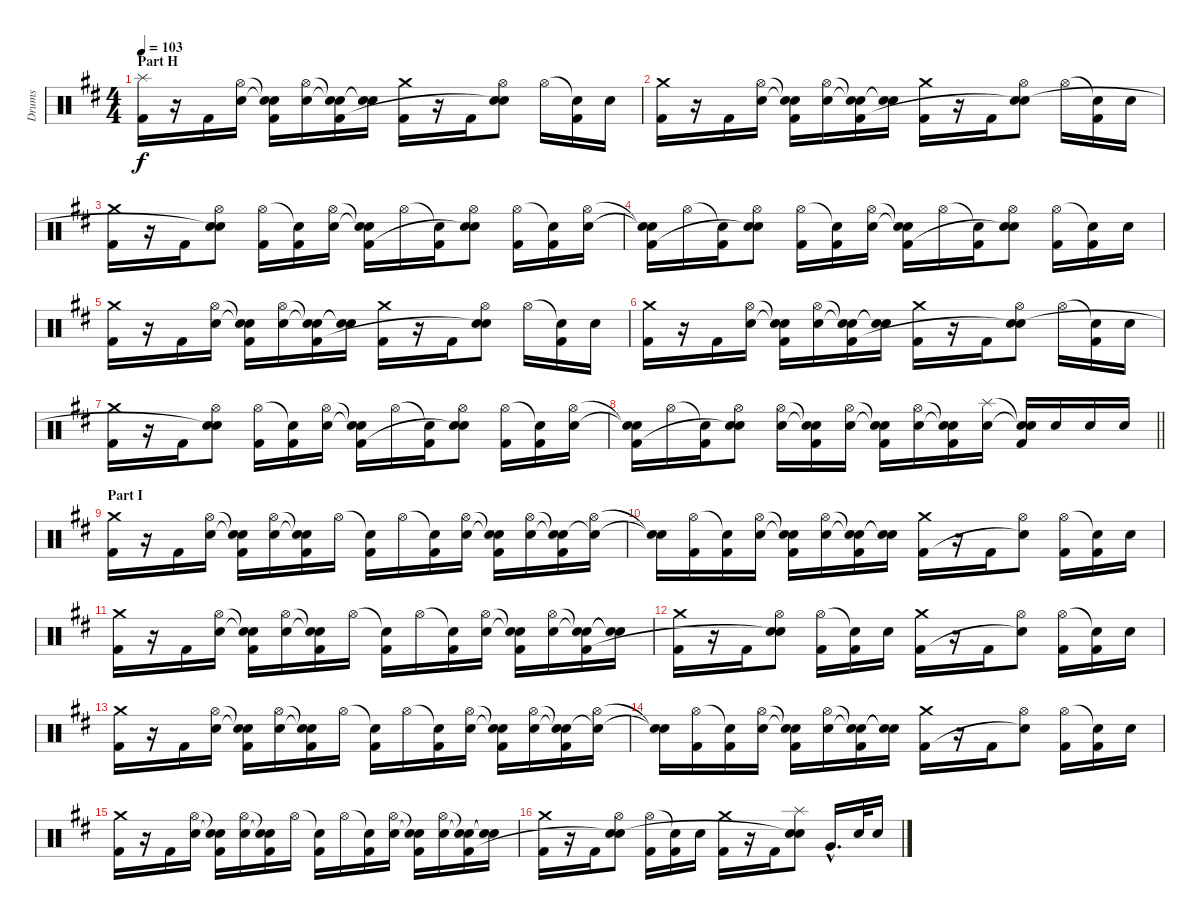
\track ("Drums" "Drums") {instrument percussion}
\staff {score}
\articulation defaults
\ts (4 4)
\section ("" "Part H")
\tempo 103
\clef neutral
\ks d
("Splash (hit)" "Kick (hit) 2").16{dy f} r.16 "Kick (hit) 2".16 ("Hi-Hat (open)" "Electric Snare (hit)").16 ("Snare (hit)"{t} "Snare (hit)"{t} "Kick (hit) 2").16 ("Hi-Hat (open)" "Electric Snare (hit)").16 ("Snare (hit)"{t} "Snare (hit)"{t} "Kick (hit) 2").16 ("Snare (hit)"{t} "Snare (hit)"{t}).16 ("Crash medium (hit)" "Kick (hit) 2").16 r.16 "Kick (hit) 2".16 ("Hi-Hat (open)" "Electric Snare (hit)" "Snare (hit)"{t}).8 "Hi-Hat (open)".16 ("Snare (hit)"{t} "Kick (hit) 2").16 "Electric Snare (hit)".16 |
("Crash medium (hit)" "Kick (hit) 2").16 r.16 "Kick (hit) 2".16 ("Hi-Hat (open)" "Electric Snare (hit)").16 ("Snare (hit)"{t} "Snare (hit)"{t} "Kick (hit) 2").16 ("Hi-Hat (open)" "Electric Snare (hit)").16 ("Snare (hit)"{t} "Snare (hit)"{t} "Kick (hit) 2").16 ("Snare (hit)"{t} "Snare (hit)"{t}).16 ("Crash medium (hit)" "Kick (hit) 2").16 r.16 "Kick (hit) 2".16 ("Hi-Hat (open)" "Electric Snare (hit)" "Snare (hit)"{t}).8 "Hi-Hat (open)".16 ("Snare (hit)"{t} "Kick (hit) 2").16 "Electric Snare (hit)".16 |
("Crash medium (hit)" "Kick (hit) 2").16 r.16 "Kick (hit) 2".16 ("Hi-Hat (open)" "Electric Snare (hit)" "Snare (hit)"{t}).8 ("Hi-Hat (open)" "Kick (hit) 2").16 ("Snare (hit)"{t} "Kick (hit) 2").16 ("Hi-Hat (open)" "Electric Snare (hit)").16 ("Snare (hit)"{t} "Snare (hit)"{t} "Kick (hit) 2").16 "Hi-Hat (open)".16 ("Snare (hit)"{t} "Kick (hit) 2").16 ("Hi-Hat (open)" "Electric Snare (hit)" "Snare (hit)"{t}).8 ("Hi-Hat (open)" "Kick (hit) 2").16 ("Snare (hit)"{t} "Kick (hit) 2").16 ("Hi-Hat (open)" "Electric Snare (hit)").16 |
("Snare (hit)"{t} "Snare (hit)"{t} "Kick (hit) 2").16 "Hi-Hat (open)".16 ("Snare (hit)"{t} "Kick (hit) 2").16 ("Hi-Hat (open)" "Electric Snare (hit)" "Snare (hit)"{t}).8 ("Hi-Hat (open)" "Kick (hit) 2").16 ("Snare (hit)"{t} "Kick (hit) 2").16 ("Hi-Hat (open)" "Electric Snare (hit)").16 ("Snare (hit)"{t} "Snare (hit)"{t} "Kick (hit) 2").16 "Hi-Hat (open)".16 ("Snare (hit)"{t} "Kick (hit) 2").16 ("Hi-Hat (open)" "Electric Snare (hit)" "Snare (hit)"{t}).8 ("Hi-Hat (open)" "Kick (hit) 2").16 ("Snare (hit)"{t} "Kick (hit) 2").16 "Electric Snare (hit)".16 |
("Crash medium (hit)" "Kick (hit) 2").16 r.16 "Kick (hit) 2".16 ("Hi-Hat (open)" "Electric Snare (hit)").16 ("Snare (hit)"{t} "Snare (hit)"{t} "Kick (hit) 2").16 ("Hi-Hat (open)" "Electric Snare (hit)").16 ("Snare (hit)"{t} "Snare (hit)"{t} "Kick (hit) 2").16 ("Snare (hit)"{t} "Snare (hit)"{t}).16 ("Crash medium (hit)" "Kick (hit) 2").16 r.16 "Kick (hit) 2".16 ("Hi-Hat (open)" "Electric Snare (hit)" "Snare (hit)"{t}).8 "Hi-Hat (open)".16 ("Snare (hit)"{t} "Kick (hit) 2").16 "Electric Snare (hit)".16 |
("Crash medium (hit)" "Kick (hit) 2").16 r.16 "Kick (hit) 2".16 ("Hi-Hat (open)" "Electric Snare (hit)").16 ("Snare (hit)"{t} "Snare (hit)"{t} "Kick (hit) 2").16 ("Hi-Hat (open)" "Electric Snare (hit)").16 ("Snare (hit)"{t} "Snare (hit)"{t} "Kick (hit) 2").16 ("Snare (hit)"{t} "Snare (hit)"{t}).16 ("Crash medium (hit)" "Kick (hit) 2").16 r.16 "Kick (hit) 2".16 ("Hi-Hat (open)" "Electric Snare (hit)" "Snare (hit)"{t}).8 "Hi-Hat (open)".16 ("Snare (hit)"{t} "Kick (hit) 2").16 "Electric Snare (hit)".16 |
("Crash medium (hit)" "Kick (hit) 2").16 r.16 "Kick (hit) 2".16 ("Hi-Hat (open)" "Electric Snare (hit)" "Snare (hit)"{t}).8 ("Hi-Hat (open)" "Kick (hit) 2").16 ("Snare (hit)"{t} "Kick (hit) 2").16 ("Hi-Hat (open)" "Electric Snare (hit)").16 ("Snare (hit)"{t} "Snare (hit)"{t} "Kick (hit) 2").16 "Hi-Hat (open)".16 ("Snare (hit)"{t} "Kick (hit) 2").16 ("Hi-Hat (open)" "Electric Snare (hit)" "Snare (hit)"{t}).8 ("Hi-Hat (open)" "Kick (hit) 2").16 ("Snare (hit)"{t} "Kick (hit) 2").16 ("Hi-Hat (open)" "Electric Snare (hit)").16 |
\barLineRight lightlight
("Snare (hit)"{t} "Snare (hit)"{t} "Kick (hit) 2").16 "Hi-Hat (open)".16 ("Snare (hit)"{t} "Kick (hit) 2").16 ("Hi-Hat (open)" "Electric Snare (hit)" "Snare (hit)"{t}).8 ("Hi-Hat (open)" "Electric Snare (hit)").16 ("Snare (hit)"{t} "Snare (hit)"{t} "Kick (hit) 2").16 ("Hi-Hat (open)" "Electric Snare (hit)").16 ("Snare (hit)"{t} "Snare (hit)"{t} "Kick (hit) 2").16 ("Hi-Hat (open)" "Electric Snare (hit)").16 ("Snare (hit)"{t} "Snare (hit)"{t} "Kick (hit) 2").16 ("Splash (hit)" "Electric Snare (hit)").16 ("Snare (hit)"{t} "Snare (hit)"{t} "Kick (hit) 2").16 "Electric Snare (hit)".16 "Electric Snare (hit)".16 "Electric Snare (hit)".16 |
\section ("" "Part I")
("Crash medium (hit)" "Kick (hit) 2").16 r.16 "Kick (hit) 2".16 ("Hi-Hat (open)" "Electric Snare (hit)").16 ("Snare (hit)"{t} "Snare (hit)"{t} "Kick (hit) 2").16 ("Hi-Hat (open)" "Electric Snare (hit)").16 ("Snare (hit)"{t} "Snare (hit)"{t} "Kick (hit) 2").16 "Hi-Hat (open)".16 ("Snare (hit)"{t} "Kick (hit) 2").16 "Hi-Hat (open)".16 ("Snare (hit)"{t} "Kick (hit) 2").16 ("Hi-Hat (open)" "Electric Snare (hit)").16 ("Snare (hit)"{t} "Snare (hit)"{t} "Kick (hit) 2").16 ("Hi-Hat (open)" "Electric Snare (hit)").16 ("Snare (hit)"{t} "Snare (hit)"{t} "Kick (hit) 2").16 ("Hi-Hat (open)" "Snare (hit)"{t}).16 |
("Snare (hit)"{t} "Snare (hit)"{t}).16 ("Hi-Hat (open)" "Kick (hit) 2").16 ("Snare (hit)"{t} "Kick (hit) 2").16 ("Hi-Hat (open)" "Electric Snare (hit)").16 ("Snare (hit)"{t} "Snare (hit)"{t} "Kick (hit) 2").16 ("Hi-Hat (open)" "Electric Snare (hit)").16 ("Snare (hit)"{t} "Snare (hit)"{t} "Kick (hit) 2").16 ("Snare (hit)"{t} "Snare (hit)"{t}).16 ("Crash medium (hit)" "Kick (hit) 2").16 r.16 "Kick (hit) 2".16 ("Hi-Hat (open)" "Snare (hit)"{t}).8 ("Hi-Hat (open)" "Kick (hit) 2").16 ("Snare (hit)"{t} "Kick (hit) 2").16 "Electric Snare (hit)".16 |
("Crash medium (hit)" "Kick (hit) 2").16 r.16 "Kick (hit) 2".16 ("Hi-Hat (open)" "Electric Snare (hit)").16 ("Snare (hit)"{t} "Snare (hit)"{t} "Kick (hit) 2").16 ("Hi-Hat (open)" "Electric Snare (hit)").16 ("Snare (hit)"{t} "Snare (hit)"{t} "Kick (hit) 2").16 "Hi-Hat (open)".16 ("Snare (hit)"{t} "Kick (hit) 2").16 "Hi-Hat (open)".16 ("Snare (hit)"{t} "Kick (hit) 2").16 ("Hi-Hat (open)" "Electric Snare (hit)").16 ("Snare (hit)"{t} "Snare (hit)"{t} "Kick (hit) 2").16 ("Hi-Hat (open)" "Electric Snare (hit)").16 ("Snare (hit)"{t} "Snare (hit)"{t} "Kick (hit) 2").16 ("Snare (hit)"{t} "Snare (hit)"{t}).16 |
("Crash medium (hit)" "Kick (hit) 2").16 r.16 "Kick (hit) 2".16 ("Hi-Hat (open)" "Electric Snare (hit)" "Snare (hit)"{t}).8 ("Hi-Hat (open)" "Kick (hit) 2").16 ("Snare (hit)"{t} "Kick (hit) 2").16 "Electric Snare (hit)".16 ("Crash medium (hit)" "Kick (hit) 2").16 r.16 "Kick (hit) 2".16 ("Hi-Hat (open)" "Snare (hit)"{t}).8 ("Hi-Hat (open)" "Kick (hit) 2").16 ("Snare (hit)"{t} "Kick (hit) 2").16 "Electric Snare (hit)".16 |
("Crash medium (hit)" "Kick (hit) 2").16 r.16 "Kick (hit) 2".16 ("Hi-Hat (open)" "Electric Snare (hit)").16 ("Snare (hit)"{t} "Snare (hit)"{t} "Kick (hit) 2").16 ("Hi-Hat (open)" "Electric Snare (hit)").16 ("Snare (hit)"{t} "Snare (hit)"{t} "Kick (hit) 2").16 "Hi-Hat (open)".16 ("Snare (hit)"{t} "Kick (hit) 2").16 "Hi-Hat (open)".16 ("Snare (hit)"{t} "Kick (hit) 2").16 ("Hi-Hat (open)" "Electric Snare (hit)").16 ("Snare (hit)"{t} "Snare (hit)"{t} "Kick (hit) 2").16 ("Hi-Hat (open)" "Electric Snare (hit)").16 ("Snare (hit)"{t} "Snare (hit)"{t} "Kick (hit) 2").16 ("Hi-Hat (open)" "Snare (hit)"{t}).16 |
("Snare (hit)"{t} "Snare (hit)"{t}).16 ("Hi-Hat (open)" "Kick (hit) 2").16 ("Snare (hit)"{t} "Kick (hit) 2").16 ("Hi-Hat (open)" "Electric Snare (hit)").16 ("Snare (hit)"{t} "Snare (hit)"{t} "Kick (hit) 2").16 ("Hi-Hat (open)" "Electric Snare (hit)").16 ("Snare (hit)"{t} "Snare (hit)"{t} "Kick (hit) 2").16 ("Snare (hit)"{t} "Snare (hit)"{t}).16 ("Crash medium (hit)" "Kick (hit) 2").16 r.16 "Kick (hit) 2".16 ("Hi-Hat (open)" "Snare (hit)"{t}).8 ("Hi-Hat (open)" "Kick (hit) 2").16 ("Snare (hit)"{t} "Kick (hit) 2").16 "Electric Snare (hit)".16 |
("Crash medium (hit)" "Kick (hit) 2").16 r.16 "Kick (hit) 2".16 ("Hi-Hat (open)" "Electric Snare (hit)").16 ("Snare (hit)"{t} "Snare (hit)"{t} "Kick (hit) 2").16 ("Hi-Hat (open)" "Electric Snare (hit)").16 ("Snare (hit)"{t} "Snare (hit)"{t} "Kick (hit) 2").16 "Hi-Hat (open)".16 ("Snare (hit)"{t} "Kick (hit) 2").16 "Hi-Hat (open)".16 ("Snare (hit)"{t} "Kick (hit) 2").16 ("Hi-Hat (open)" "Electric Snare (hit)").16 ("Snare (hit)"{t} "Snare (hit)"{t} "Kick (hit) 2").16 ("Hi-Hat (open)" "Electric Snare (hit)").16 ("Snare (hit)"{t} "Snare (hit)"{t} "Kick (hit) 2").16 ("Snare (hit)"{t} "Snare (hit)"{t}).16 |
("Crash medium (hit)" "Kick (hit) 2").16 r.16 "Kick (hit) 2".16 ("Hi-Hat (open)" "Electric Snare (hit)" "Snare (hit)"{t}).8 ("Hi-Hat (open)" "Kick (hit) 2").16 ("Snare (hit)"{t} "Kick (hit) 2").16 "Electric Snare (hit)".16 ("Crash medium (hit)" "Kick (hit) 2").16 r.16 "Kick (hit) 2".16 ("Splash (hit)" "Electric Snare (hit)" "Snare (hit)"{t}).8 "Very Low Tom (hit)"{hac}.16{d} "Electric Snare (hit)".32 "Electric Snare (hit)".16
